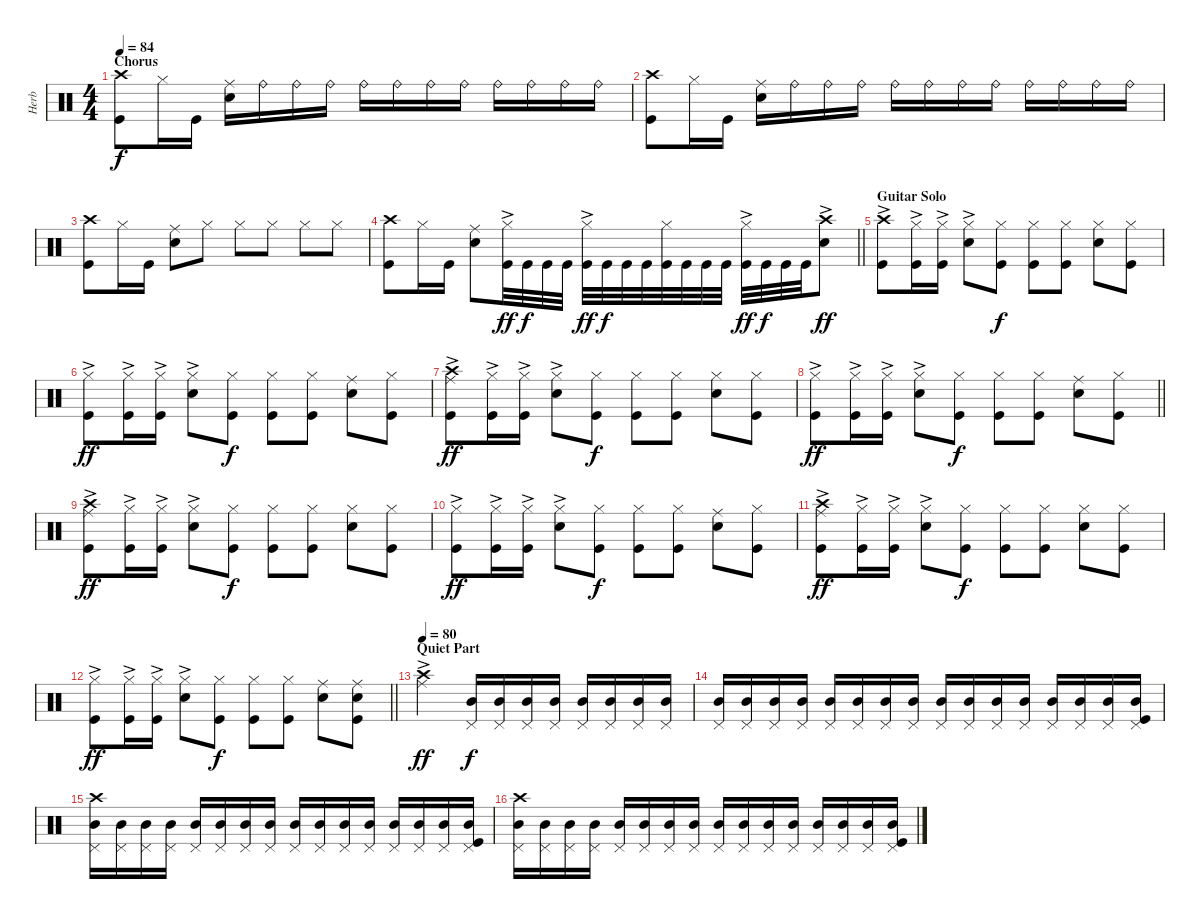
\track ("Herb" "Herb") {instrument percussion}
\staff {score}
\articulation defaults
\ts (4 4)
\section ("" "Chorus")
\tempo 84
\clef neutral
\ks c
("Crash high (hit)" "Kick (hit)").8{dy f} "Hi-Hat (closed)".16 "Kick (hit)".16 ("Ride (middle)" "Snare (hit) 2").16 "Ride (bell)".16 "Ride (bell)".16 "Ride (bell)".16 "Ride (bell)".16 "Ride (bell)".16 "Ride (bell)".16 "Ride (bell)".16 "Ride (bell)".16 "Ride (bell)".16 "Ride (bell)".16 "Ride (bell)".16 |
("Crash high (hit)" "Kick (hit)").8 "Hi-Hat (closed)".16 "Kick (hit)".16 ("Ride (middle)" "Snare (hit) 2").16 "Ride (bell)".16 "Ride (bell)".16 "Ride (bell)".16 "Ride (bell)".16 "Ride (bell)".16 "Ride (bell)".16 "Ride (bell)".16 "Ride (bell)".16 "Ride (bell)".16 "Ride (bell)".16 "Ride (bell)".16 |
("Crash high (hit)" "Kick (hit)").8 "Hi-Hat (closed)".16 "Kick (hit)".16 ("Ride (middle)" "Snare (hit) 2").8 "Hi-Hat (closed)".8 "Hi-Hat (closed)".8 "Hi-Hat (closed)".8 "Hi-Hat (closed)".8 "Hi-Hat (closed)".8 |
\barLineRight lightlight
("Crash high (hit)" "Kick (hit)").8 "Hi-Hat (closed)".16 "Kick (hit)".16 ("Ride (middle)" "Snare (hit) 2").8 ("Hi-Hat (closed)"{ac} "Kick (hit)").32{dy ff} "Kick (hit)".32{dy f} "Kick (hit)".32 "Kick (hit)".32 ("Hi-Hat (closed)"{ac} "Kick (hit)").32{dy ff} "Kick (hit)".32{dy f} "Kick (hit)".32 "Kick (hit)".32 ("Hi-Hat (closed)" "Kick (hit)").32 "Kick (hit)".32 "Kick (hit)".32 "Kick (hit)".32 ("Hi-Hat (closed)"{ac} "Kick (hit)").32{dy ff} "Kick (hit)".32{dy f} "Kick (hit)".32 "Kick (hit)".32 ("Crash high (hit)"{ac} "Snare (hit) 2").8{dy ff} |
\section ("" "Guitar Solo")
("Crash high (hit)"{ac} "Kick (hit)").8 ("Hi-Hat (closed)"{ac} "Kick (hit)").16 ("Hi-Hat (closed)"{ac} "Kick (hit)").16 ("Hi-Hat (closed)"{ac} "Snare (hit) 2"{ac}).8 ("Hi-Hat (closed)" "Kick (hit)").8{dy f} ("Hi-Hat (closed)" "Kick (hit)").8 ("Hi-Hat (closed)" "Kick (hit)").8 ("Hi-Hat (closed)" "Snare (hit) 2").8 ("Hi-Hat (closed)" "Kick (hit)").8 |
("Hi-Hat (closed)"{ac} "Kick (hit)").8{dy ff} ("Hi-Hat (closed)"{ac} "Kick (hit)").16 ("Hi-Hat (closed)"{ac} "Kick (hit)").16 ("Hi-Hat (closed)"{ac} "Snare (hit) 2"{ac}).8 ("Hi-Hat (closed)" "Kick (hit)").8{dy f} ("Hi-Hat (closed)" "Kick (hit)").8 ("Hi-Hat (closed)" "Kick (hit)").8 ("Ride (middle)" "Snare (hit) 2").8 ("Hi-Hat (closed)" "Kick (hit)").8 |
("Crash high (hit)"{ac} "Ride (middle)" "Kick (hit)").8{dy ff} ("Hi-Hat (closed)"{ac} "Kick (hit)").16 ("Hi-Hat (closed)"{ac} "Kick (hit)").16 ("Hi-Hat (closed)"{ac} "Snare (hit) 2"{ac}).8 ("Hi-Hat (closed)" "Kick (hit)").8{dy f} ("Hi-Hat (closed)" "Kick (hit)").8 ("Hi-Hat (closed)" "Kick (hit)").8 ("Hi-Hat (closed)" "Snare (hit) 2").8 ("Hi-Hat (closed)" "Kick (hit)").8 |
\barLineRight lightlight
("Hi-Hat (closed)"{ac} "Kick (hit)").8{dy ff} ("Hi-Hat (closed)"{ac} "Kick (hit)").16 ("Hi-Hat (closed)"{ac} "Kick (hit)").16 ("Hi-Hat (closed)"{ac} "Snare (hit) 2"{ac}).8 ("Hi-Hat (closed)" "Kick (hit)").8{dy f} ("Hi-Hat (closed)" "Kick (hit)").8 ("Hi-Hat (closed)" "Kick (hit)").8 ("Ride (middle)" "Snare (hit) 2").8 ("Hi-Hat (closed)" "Kick (hit)").8 |
("Crash high (hit)"{ac} "Ride (middle)" "Kick (hit)").8{dy ff} ("Hi-Hat (closed)"{ac} "Kick (hit)").16 ("Hi-Hat (closed)"{ac} "Kick (hit)").16 ("Hi-Hat (closed)"{ac} "Snare (hit) 2"{ac}).8 ("Hi-Hat (closed)" "Kick (hit)").8{dy f} ("Hi-Hat (closed)" "Kick (hit)").8 ("Hi-Hat (closed)" "Kick (hit)").8 ("Hi-Hat (closed)" "Snare (hit) 2").8 ("Hi-Hat (closed)" "Kick (hit)").8 |
("Hi-Hat (closed)"{ac} "Kick (hit)").8{dy ff} ("Hi-Hat (closed)"{ac} "Kick (hit)").16 ("Hi-Hat (closed)"{ac} "Kick (hit)").16 ("Hi-Hat (closed)"{ac} "Snare (hit) 2"{ac}).8 ("Hi-Hat (closed)" "Kick (hit)").8{dy f} ("Hi-Hat (closed)" "Kick (hit)").8 ("Hi-Hat (closed)" "Kick (hit)").8 ("Ride (middle)" "Snare (hit) 2").8 ("Hi-Hat (closed)" "Kick (hit)").8 |
("Crash high (hit)"{ac} "Ride (middle)" "Kick (hit)").8{dy ff} ("Hi-Hat (closed)"{ac} "Kick (hit)").16 ("Hi-Hat (closed)"{ac} "Kick (hit)").16 ("Hi-Hat (closed)"{ac} "Snare (hit) 2"{ac}).8 ("Hi-Hat (closed)" "Kick (hit)").8{dy f} ("Hi-Hat (closed)" "Kick (hit)").8 ("Hi-Hat (closed)" "Kick (hit)").8 ("Hi-Hat (closed)" "Snare (hit) 2").8 ("Hi-Hat (closed)" "Kick (hit)").8 |
\barLineRight lightlight
("Hi-Hat (closed)"{ac} "Kick (hit)").8{dy ff} ("Hi-Hat (closed)"{ac} "Kick (hit)").16 ("Hi-Hat (closed)"{ac} "Kick (hit)").16 ("Hi-Hat (closed)"{ac} "Snare (hit) 2"{ac}).8 ("Hi-Hat (closed)" "Kick (hit)").8{dy f} ("Hi-Hat (closed)" "Kick (hit)").8 ("Hi-Hat (closed)" "Kick (hit)").8 ("Ride (middle)" "Snare (hit) 2").8 ("Ride (middle)" "Snare (hit) 2" "Kick (hit)").8 |
\section ("" "Quiet Part")
\tempo 80
("Crash high (hit)"{ac} "Ride (middle)"{ac}).2{dy ff} ("Pedal Hi-Hat (hit)" "Mid Tom (hit)").16{dy f} ("Pedal Hi-Hat (hit)" "Mid Tom (hit)").16 ("Pedal Hi-Hat (hit)" "Mid Tom (hit)").16 ("Pedal Hi-Hat (hit)" "Mid Tom (hit)").16 ("Pedal Hi-Hat (hit)" "Mid Tom (hit)").16 ("Pedal Hi-Hat (hit)" "Mid Tom (hit)").16 ("Pedal Hi-Hat (hit)" "Mid Tom (hit)").16 ("Pedal Hi-Hat (hit)" "Mid Tom (hit)").16 |
("Pedal Hi-Hat (hit)" "Mid Tom (hit)").16 ("Pedal Hi-Hat (hit)" "Mid Tom (hit)").16 ("Pedal Hi-Hat (hit)" "Mid Tom (hit)").16 ("Pedal Hi-Hat (hit)" "Mid Tom (hit)").16 ("Pedal Hi-Hat (hit)" "Mid Tom (hit)").16 ("Pedal Hi-Hat (hit)" "Mid Tom (hit)").16 ("Pedal Hi-Hat (hit)" "Mid Tom (hit)").16 ("Pedal Hi-Hat (hit)" "Mid Tom (hit)").16 ("Pedal Hi-Hat (hit)" "Mid Tom (hit)").16 ("Pedal Hi-Hat (hit)" "Mid Tom (hit)").16 ("Pedal Hi-Hat (hit)" "Mid Tom (hit)").16 ("Pedal Hi-Hat (hit)" "Mid Tom (hit)").16 ("Pedal Hi-Hat (hit)" "Mid Tom (hit)").16 ("Pedal Hi-Hat (hit)" "Mid Tom (hit)").16 ("Pedal Hi-Hat (hit)" "Mid Tom (hit)").16 ("Pedal Hi-Hat (hit)" "Mid Tom (hit)" "Kick (hit)").16 |
("Pedal Hi-Hat (hit)" "Mid Tom (hit)" "Crash high (hit)").16 ("Pedal Hi-Hat (hit)" "Mid Tom (hit)").16 ("Pedal Hi-Hat (hit)" "Mid Tom (hit)").16 ("Pedal Hi-Hat (hit)" "Mid Tom (hit)").16 ("Pedal Hi-Hat (hit)" "Mid Tom (hit)").16 ("Pedal Hi-Hat (hit)" "Mid Tom (hit)").16 ("Pedal Hi-Hat (hit)" "Mid Tom (hit)").16 ("Pedal Hi-Hat (hit)" "Mid Tom (hit)").16 ("Pedal Hi-Hat (hit)" "Mid Tom (hit)").16 ("Pedal Hi-Hat (hit)" "Mid Tom (hit)").16 ("Pedal Hi-Hat (hit)" "Mid Tom (hit)").16 ("Pedal Hi-Hat (hit)" "Mid Tom (hit)").16 ("Pedal Hi-Hat (hit)" "Mid Tom (hit)").16 ("Pedal Hi-Hat (hit)" "Mid Tom (hit)").16 ("Pedal Hi-Hat (hit)" "Mid Tom (hit)").16 ("Pedal Hi-Hat (hit)" "Mid Tom (hit)" "Kick (hit)").16 |
("Pedal Hi-Hat (hit)" "Mid Tom (hit)" "Crash high (hit)").16 ("Pedal Hi-Hat (hit)" "Mid Tom (hit)").16 ("Pedal Hi-Hat (hit)" "Mid Tom (hit)").16 ("Pedal Hi-Hat (hit)" "Mid Tom (hit)").16 ("Pedal Hi-Hat (hit)" "Mid Tom (hit)").16 ("Pedal Hi-Hat (hit)" "Mid Tom (hit)").16 ("Pedal Hi-Hat (hit)" "Mid Tom (hit)").16 ("Pedal Hi-Hat (hit)" "Mid Tom (hit)").16 ("Pedal Hi-Hat (hit)" "Mid Tom (hit)").16 ("Pedal Hi-Hat (hit)" "Mid Tom (hit)").16 ("Pedal Hi-Hat (hit)" "Mid Tom (hit)").16 ("Pedal Hi-Hat (hit)" "Mid Tom (hit)").16 ("Pedal Hi-Hat (hit)" "Mid Tom (hit)").16 ("Pedal Hi-Hat (hit)" "Mid Tom (hit)").16 ("Pedal Hi-Hat (hit)" "Mid Tom (hit)").16 ("Pedal Hi-Hat (hit)" "Mid Tom (hit)" "Kick (hit)").16
